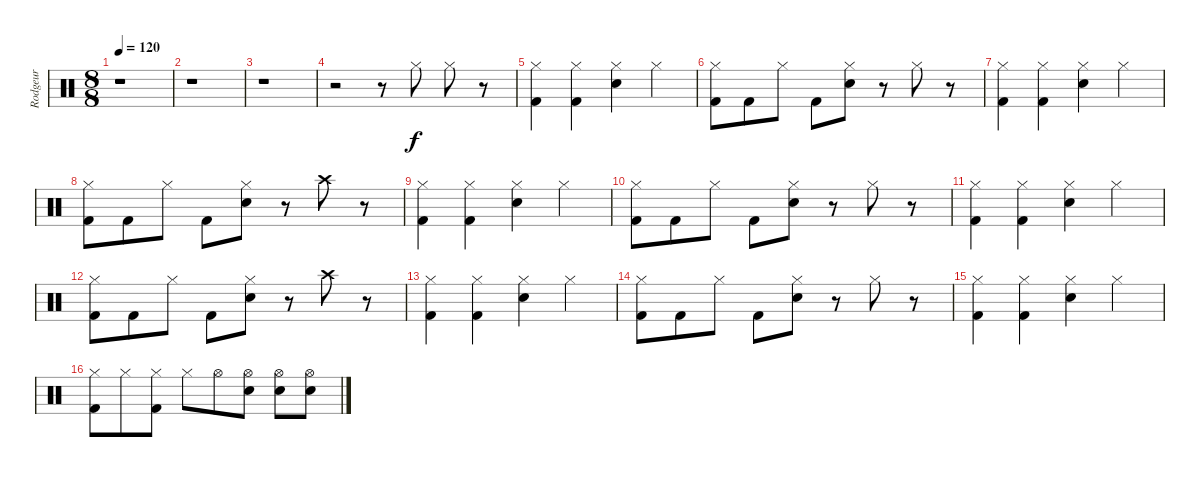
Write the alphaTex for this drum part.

\track ("Rodgeur" "Rodgeur") {instrument percussion}
\staff {score}
\articulation defaults
\ts (8 8)
\tempo 120
\clef neutral
\ks c
r.1{dy f} |
r.1 |
r.1 |
r.2 r.8 "Hi-Hat (closed)".8 "Hi-Hat (closed)".8 r.8 |
("Hi-Hat (closed)" "Kick (hit) 2").4 ("Hi-Hat (closed)" "Kick (hit) 2").4 ("Hi-Hat (closed)" "Electric Snare (hit)").4 "Hi-Hat (closed)".4 |
("Hi-Hat (closed)" "Kick (hit) 2").8 "Kick (hit) 2".8 "Hi-Hat (closed)".8 "Kick (hit) 2".8 ("Hi-Hat (closed)" "Electric Snare (hit)").8 r.8 "Hi-Hat (closed)".8 r.8 |
("Hi-Hat (closed)" "Kick (hit) 2").4 ("Hi-Hat (closed)" "Kick (hit) 2").4 ("Hi-Hat (closed)" "Electric Snare (hit)").4 "Hi-Hat (closed)".4 |
("Hi-Hat (closed)" "Kick (hit) 2").8 "Kick (hit) 2".8 "Hi-Hat (closed)".8 "Kick (hit) 2".8 ("Hi-Hat (closed)" "Electric Snare (hit)").8 r.8 "Crash high (hit)".8 r.8 |
("Hi-Hat (closed)" "Kick (hit) 2").4 ("Hi-Hat (closed)" "Kick (hit) 2").4 ("Hi-Hat (closed)" "Electric Snare (hit)").4 "Hi-Hat (closed)".4 |
("Hi-Hat (closed)" "Kick (hit) 2").8 "Kick (hit) 2".8 "Hi-Hat (closed)".8 "Kick (hit) 2".8 ("Hi-Hat (closed)" "Electric Snare (hit)").8 r.8 "Hi-Hat (closed)".8 r.8 |
("Hi-Hat (closed)" "Kick (hit) 2").4 ("Hi-Hat (closed)" "Kick (hit) 2").4 ("Hi-Hat (closed)" "Electric Snare (hit)").4 "Hi-Hat (closed)".4 |
("Hi-Hat (closed)" "Kick (hit) 2").8 "Kick (hit) 2".8 "Hi-Hat (closed)".8 "Kick (hit) 2".8 ("Hi-Hat (closed)" "Electric Snare (hit)").8 r.8 "Crash high (hit)".8 r.8 |
("Hi-Hat (closed)" "Kick (hit) 2").4 ("Hi-Hat (closed)" "Kick (hit) 2").4 ("Hi-Hat (closed)" "Electric Snare (hit)").4 "Hi-Hat (closed)".4 |
("Hi-Hat (closed)" "Kick (hit) 2").8 "Kick (hit) 2".8 "Hi-Hat (closed)".8 "Kick (hit) 2".8 ("Hi-Hat (closed)" "Electric Snare (hit)").8 r.8 "Hi-Hat (closed)".8 r.8 |
("Hi-Hat (closed)" "Kick (hit) 2").4 ("Hi-Hat (closed)" "Kick (hit) 2").4 ("Hi-Hat (closed)" "Electric Snare (hit)").4 "Hi-Hat (closed)".4 |
("Hi-Hat (closed)" "Kick (hit) 2").8 "Hi-Hat (closed)".8 ("Hi-Hat (closed)" "Kick (hit) 2").8 "Hi-Hat (closed)".8 "Hi-Hat (open)".8 ("Hi-Hat (open)" "Electric Snare (hit)").8 ("Hi-Hat (open)" "Electric Snare (hit)").8 ("Hi-Hat (open)" "Electric Snare (hit)").8
